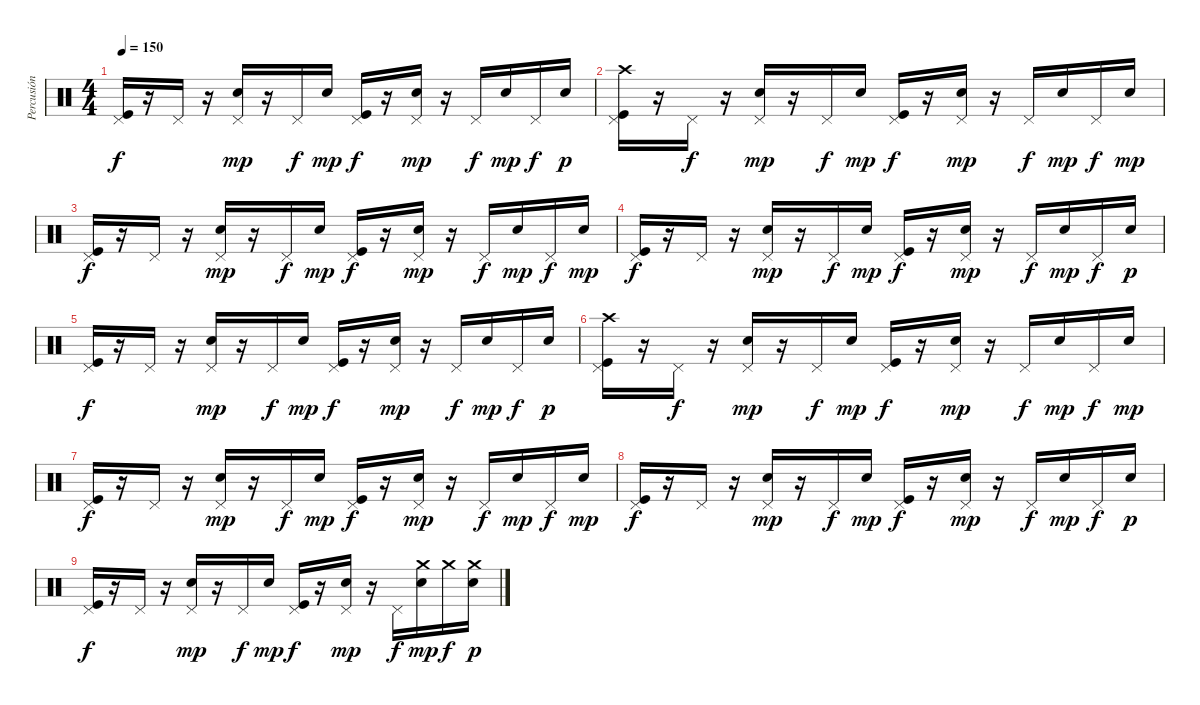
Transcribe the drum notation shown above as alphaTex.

\track ("Percusión" "Percusión") {instrument percussion}
\staff {score}
\articulation defaults
\ts (4 4)
\tempo 150
\clef neutral
\ks c
("Pedal Hi-Hat (hit)" "Kick (hit)").16{dy f} r.16 "Pedal Hi-Hat (hit)".16 r.16 ("Pedal Hi-Hat (hit)" "Electric Snare (hit)").16{dy mp} r.16 "Pedal Hi-Hat (hit)".16{dy f} "Electric Snare (hit)".16{dy mp} ("Pedal Hi-Hat (hit)" "Kick (hit)").16{dy f} r.16 ("Pedal Hi-Hat (hit)" "Electric Snare (hit)").16{dy mp} r.16 "Pedal Hi-Hat (hit)".16{dy f} "Electric Snare (hit)".16{dy mp} "Pedal Hi-Hat (hit)".16{dy f} "Electric Snare (hit)".16{dy p} |
("Pedal Hi-Hat (hit)" "Crash high (hit)" "Kick (hit)").16 r.16 "Pedal Hi-Hat (hit)".16{dy f} r.16 ("Pedal Hi-Hat (hit)" "Electric Snare (hit)").16{dy mp} r.16 "Pedal Hi-Hat (hit)".16{dy f} "Electric Snare (hit)".16{dy mp} ("Pedal Hi-Hat (hit)" "Kick (hit)").16{dy f} r.16 ("Pedal Hi-Hat (hit)" "Electric Snare (hit)").16{dy mp} r.16 "Pedal Hi-Hat (hit)".16{dy f} "Electric Snare (hit)".16{dy mp} "Pedal Hi-Hat (hit)".16{dy f} "Electric Snare (hit)".16{dy mp} |
("Pedal Hi-Hat (hit)" "Kick (hit)").16{dy f} r.16 "Pedal Hi-Hat (hit)".16 r.16 ("Pedal Hi-Hat (hit)" "Electric Snare (hit)").16{dy mp} r.16 "Pedal Hi-Hat (hit)".16{dy f} "Electric Snare (hit)".16{dy mp} ("Pedal Hi-Hat (hit)" "Kick (hit)").16{dy f} r.16 ("Pedal Hi-Hat (hit)" "Electric Snare (hit)").16{dy mp} r.16 "Pedal Hi-Hat (hit)".16{dy f} "Electric Snare (hit)".16{dy mp} "Pedal Hi-Hat (hit)".16{dy f} "Electric Snare (hit)".16{dy mp} |
("Pedal Hi-Hat (hit)" "Kick (hit)").16{dy f} r.16 "Pedal Hi-Hat (hit)".16 r.16 ("Pedal Hi-Hat (hit)" "Electric Snare (hit)").16{dy mp} r.16 "Pedal Hi-Hat (hit)".16{dy f} "Electric Snare (hit)".16{dy mp} ("Pedal Hi-Hat (hit)" "Kick (hit)").16{dy f} r.16 ("Pedal Hi-Hat (hit)" "Electric Snare (hit)").16{dy mp} r.16 "Pedal Hi-Hat (hit)".16{dy f} "Electric Snare (hit)".16{dy mp} "Pedal Hi-Hat (hit)".16{dy f} "Electric Snare (hit)".16{dy p} |
("Pedal Hi-Hat (hit)" "Kick (hit)").16{dy f} r.16 "Pedal Hi-Hat (hit)".16 r.16 ("Pedal Hi-Hat (hit)" "Electric Snare (hit)").16{dy mp} r.16 "Pedal Hi-Hat (hit)".16{dy f} "Electric Snare (hit)".16{dy mp} ("Pedal Hi-Hat (hit)" "Kick (hit)").16{dy f} r.16 ("Pedal Hi-Hat (hit)" "Electric Snare (hit)").16{dy mp} r.16 "Pedal Hi-Hat (hit)".16{dy f} "Electric Snare (hit)".16{dy mp} "Pedal Hi-Hat (hit)".16{dy f} "Electric Snare (hit)".16{dy p} |
("Pedal Hi-Hat (hit)" "Crash high (hit)" "Kick (hit)").16{volume 6} r.16 "Pedal Hi-Hat (hit)".16{dy f} r.16 ("Pedal Hi-Hat (hit)" "Electric Snare (hit)").16{dy mp} r.16 "Pedal Hi-Hat (hit)".16{dy f} "Electric Snare (hit)".16{dy mp} ("Pedal Hi-Hat (hit)" "Kick (hit)").16{dy f} r.16 ("Pedal Hi-Hat (hit)" "Electric Snare (hit)").16{dy mp} r.16 "Pedal Hi-Hat (hit)".16{dy f} "Electric Snare (hit)".16{dy mp} "Pedal Hi-Hat (hit)".16{dy f} "Electric Snare (hit)".16{dy mp} |
("Pedal Hi-Hat (hit)" "Kick (hit)").16{dy f} r.16 "Pedal Hi-Hat (hit)".16 r.16 ("Pedal Hi-Hat (hit)" "Electric Snare (hit)").16{dy mp} r.16 "Pedal Hi-Hat (hit)".16{dy f} "Electric Snare (hit)".16{dy mp} ("Pedal Hi-Hat (hit)" "Kick (hit)").16{dy f} r.16 ("Pedal Hi-Hat (hit)" "Electric Snare (hit)").16{dy mp} r.16 "Pedal Hi-Hat (hit)".16{dy f} "Electric Snare (hit)".16{dy mp} "Pedal Hi-Hat (hit)".16{dy f} "Electric Snare (hit)".16{dy mp} |
("Pedal Hi-Hat (hit)" "Kick (hit)").16{dy f volume 0} r.16 "Pedal Hi-Hat (hit)".16 r.16 ("Pedal Hi-Hat (hit)" "Electric Snare (hit)").16{dy mp} r.16 "Pedal Hi-Hat (hit)".16{dy f} "Electric Snare (hit)".16{dy mp} ("Pedal Hi-Hat (hit)" "Kick (hit)").16{dy f} r.16 ("Pedal Hi-Hat (hit)" "Electric Snare (hit)").16{dy mp} r.16 "Pedal Hi-Hat (hit)".16{dy f} "Electric Snare (hit)".16{dy mp} "Pedal Hi-Hat (hit)".16{dy f} "Electric Snare (hit)".16{dy p} |
("Pedal Hi-Hat (hit)" "Kick (hit)").16{dy f} r.16 "Pedal Hi-Hat (hit)".16 r.16 ("Pedal Hi-Hat (hit)" "Electric Snare (hit)").16{dy mp} r.16 "Pedal Hi-Hat (hit)".16{dy f} "Electric Snare (hit)".16{dy mp} ("Pedal Hi-Hat (hit)" "Kick (hit)").16{dy f} r.16 ("Pedal Hi-Hat (hit)" "Electric Snare (hit)").16{dy mp} r.16 "Pedal Hi-Hat (hit)".16{dy f} ("Crash medium (hit)" "Electric Snare (hit)").16{dy mp} "Crash medium (hit)".16{dy f} ("Crash medium (hit)" "Electric Snare (hit)").16{dy p}
